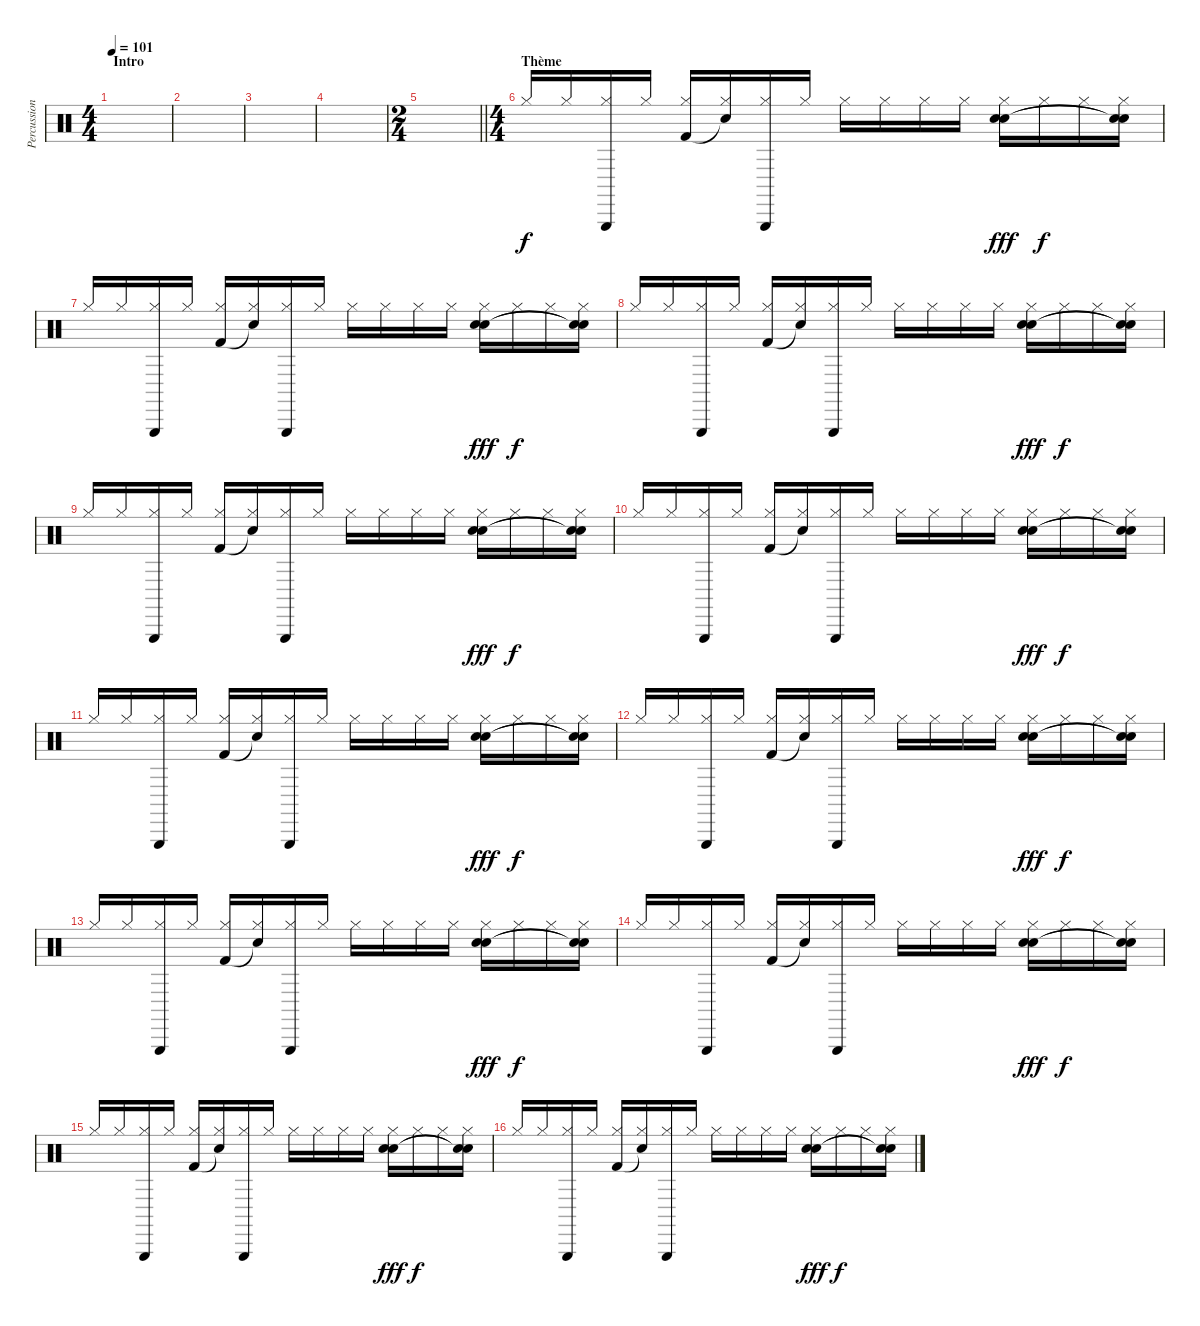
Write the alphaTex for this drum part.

\track ("Percussions" "Percussion") {instrument percussion}
\staff {score}
\articulation defaults
\ts (4 4)
\section ("" "Intro")
\tempo 101
\clef neutral
\ks c
|
|
|
|
\ts (2 4)
\barLineRight lightlight
|
\ts (4 4)
\section ("" "Thème")
"Hi-Hat (closed)".16 "Hi-Hat (closed)".16 ("Hi-Hat (closed)" "Triangle (hit)").16 "Hi-Hat (closed)".16 ("Hi-Hat (closed)" "Kick (hit) 2").16 ("Hi-Hat (closed)" "Snare (hit)"{t}).16 ("Hi-Hat (closed)" "Triangle (hit)").16 "Hi-Hat (closed)".16 "Hi-Hat (closed)".16 "Hi-Hat (closed)".16 "Hi-Hat (closed)".16 "Hi-Hat (closed)".16 ("Hi-Hat (closed)" "Hand Clap (hit)" "Snare (hit) 2").16{dy fff} "Hi-Hat (closed)".16{dy f} "Hi-Hat (closed)".16 ("Hi-Hat (closed)" "Snare (hit)"{t} "Snare (hit)"{t}).16 |
"Hi-Hat (closed)".16 "Hi-Hat (closed)".16 ("Hi-Hat (closed)" "Triangle (hit)").16 "Hi-Hat (closed)".16 ("Hi-Hat (closed)" "Kick (hit) 2").16 ("Hi-Hat (closed)" "Snare (hit)"{t}).16 ("Hi-Hat (closed)" "Triangle (hit)").16 "Hi-Hat (closed)".16 "Hi-Hat (closed)".16 "Hi-Hat (closed)".16 "Hi-Hat (closed)".16 "Hi-Hat (closed)".16 ("Hi-Hat (closed)" "Hand Clap (hit)" "Snare (hit) 2").16{dy fff} "Hi-Hat (closed)".16{dy f} "Hi-Hat (closed)".16 ("Hi-Hat (closed)" "Snare (hit)"{t} "Snare (hit)"{t}).16 |
"Hi-Hat (closed)".16 "Hi-Hat (closed)".16 ("Hi-Hat (closed)" "Triangle (hit)").16 "Hi-Hat (closed)".16 ("Hi-Hat (closed)" "Kick (hit) 2").16 ("Hi-Hat (closed)" "Snare (hit)"{t}).16 ("Hi-Hat (closed)" "Triangle (hit)").16 "Hi-Hat (closed)".16 "Hi-Hat (closed)".16 "Hi-Hat (closed)".16 "Hi-Hat (closed)".16 "Hi-Hat (closed)".16 ("Hi-Hat (closed)" "Hand Clap (hit)" "Snare (hit) 2").16{dy fff} "Hi-Hat (closed)".16{dy f} "Hi-Hat (closed)".16 ("Hi-Hat (closed)" "Snare (hit)"{t} "Snare (hit)"{t}).16 |
"Hi-Hat (closed)".16 "Hi-Hat (closed)".16 ("Hi-Hat (closed)" "Triangle (hit)").16 "Hi-Hat (closed)".16 ("Hi-Hat (closed)" "Kick (hit) 2").16 ("Hi-Hat (closed)" "Snare (hit)"{t}).16 ("Hi-Hat (closed)" "Triangle (hit)").16 "Hi-Hat (closed)".16 "Hi-Hat (closed)".16 "Hi-Hat (closed)".16 "Hi-Hat (closed)".16 "Hi-Hat (closed)".16 ("Hi-Hat (closed)" "Hand Clap (hit)" "Snare (hit) 2").16{dy fff} "Hi-Hat (closed)".16{dy f} "Hi-Hat (closed)".16 ("Hi-Hat (closed)" "Snare (hit)"{t} "Snare (hit)"{t}).16 |
"Hi-Hat (closed)".16 "Hi-Hat (closed)".16 ("Hi-Hat (closed)" "Triangle (hit)").16 "Hi-Hat (closed)".16 ("Hi-Hat (closed)" "Kick (hit) 2").16 ("Hi-Hat (closed)" "Snare (hit)"{t}).16 ("Hi-Hat (closed)" "Triangle (hit)").16 "Hi-Hat (closed)".16 "Hi-Hat (closed)".16 "Hi-Hat (closed)".16 "Hi-Hat (closed)".16 "Hi-Hat (closed)".16 ("Hi-Hat (closed)" "Hand Clap (hit)" "Snare (hit) 2").16{dy fff} "Hi-Hat (closed)".16{dy f} "Hi-Hat (closed)".16 ("Hi-Hat (closed)" "Snare (hit)"{t} "Snare (hit)"{t}).16 |
"Hi-Hat (closed)".16 "Hi-Hat (closed)".16 ("Hi-Hat (closed)" "Triangle (hit)").16 "Hi-Hat (closed)".16 ("Hi-Hat (closed)" "Kick (hit) 2").16 ("Hi-Hat (closed)" "Snare (hit)"{t}).16 ("Hi-Hat (closed)" "Triangle (hit)").16 "Hi-Hat (closed)".16 "Hi-Hat (closed)".16 "Hi-Hat (closed)".16 "Hi-Hat (closed)".16 "Hi-Hat (closed)".16 ("Hi-Hat (closed)" "Hand Clap (hit)" "Snare (hit) 2").16{dy fff} "Hi-Hat (closed)".16{dy f} "Hi-Hat (closed)".16 ("Hi-Hat (closed)" "Snare (hit)"{t} "Snare (hit)"{t}).16 |
"Hi-Hat (closed)".16 "Hi-Hat (closed)".16 ("Hi-Hat (closed)" "Triangle (hit)").16 "Hi-Hat (closed)".16 ("Hi-Hat (closed)" "Kick (hit) 2").16 ("Hi-Hat (closed)" "Snare (hit)"{t}).16 ("Hi-Hat (closed)" "Triangle (hit)").16 "Hi-Hat (closed)".16 "Hi-Hat (closed)".16 "Hi-Hat (closed)".16 "Hi-Hat (closed)".16 "Hi-Hat (closed)".16 ("Hi-Hat (closed)" "Hand Clap (hit)" "Snare (hit) 2").16{dy fff} "Hi-Hat (closed)".16{dy f} "Hi-Hat (closed)".16 ("Hi-Hat (closed)" "Snare (hit)"{t} "Snare (hit)"{t}).16 |
"Hi-Hat (closed)".16 "Hi-Hat (closed)".16 ("Hi-Hat (closed)" "Triangle (hit)").16 "Hi-Hat (closed)".16 ("Hi-Hat (closed)" "Kick (hit) 2").16 ("Hi-Hat (closed)" "Snare (hit)"{t}).16 ("Hi-Hat (closed)" "Triangle (hit)").16 "Hi-Hat (closed)".16 "Hi-Hat (closed)".16 "Hi-Hat (closed)".16 "Hi-Hat (closed)".16 "Hi-Hat (closed)".16 ("Hi-Hat (closed)" "Hand Clap (hit)" "Snare (hit) 2").16{dy fff} "Hi-Hat (closed)".16{dy f} "Hi-Hat (closed)".16 ("Hi-Hat (closed)" "Snare (hit)"{t} "Snare (hit)"{t}).16 |
"Hi-Hat (closed)".16 "Hi-Hat (closed)".16 ("Hi-Hat (closed)" "Triangle (hit)").16 "Hi-Hat (closed)".16 ("Hi-Hat (closed)" "Kick (hit) 2").16 ("Hi-Hat (closed)" "Snare (hit)"{t}).16 ("Hi-Hat (closed)" "Triangle (hit)").16 "Hi-Hat (closed)".16 "Hi-Hat (closed)".16 "Hi-Hat (closed)".16 "Hi-Hat (closed)".16 "Hi-Hat (closed)".16 ("Hi-Hat (closed)" "Hand Clap (hit)" "Snare (hit) 2").16{dy fff} "Hi-Hat (closed)".16{dy f} "Hi-Hat (closed)".16 ("Hi-Hat (closed)" "Snare (hit)"{t} "Snare (hit)"{t}).16 |
"Hi-Hat (closed)".16 "Hi-Hat (closed)".16 ("Hi-Hat (closed)" "Triangle (hit)").16 "Hi-Hat (closed)".16 ("Hi-Hat (closed)" "Kick (hit) 2").16 ("Hi-Hat (closed)" "Snare (hit)"{t}).16 ("Hi-Hat (closed)" "Triangle (hit)").16 "Hi-Hat (closed)".16 "Hi-Hat (closed)".16 "Hi-Hat (closed)".16 "Hi-Hat (closed)".16 "Hi-Hat (closed)".16 ("Hi-Hat (closed)" "Hand Clap (hit)" "Snare (hit) 2").16{dy fff} "Hi-Hat (closed)".16{dy f} "Hi-Hat (closed)".16 ("Hi-Hat (closed)" "Snare (hit)"{t} "Snare (hit)"{t}).16 |
"Hi-Hat (closed)".16 "Hi-Hat (closed)".16 ("Hi-Hat (closed)" "Triangle (hit)").16 "Hi-Hat (closed)".16 ("Hi-Hat (closed)" "Kick (hit) 2").16 ("Hi-Hat (closed)" "Snare (hit)"{t}).16 ("Hi-Hat (closed)" "Triangle (hit)").16 "Hi-Hat (closed)".16 "Hi-Hat (closed)".16 "Hi-Hat (closed)".16 "Hi-Hat (closed)".16 "Hi-Hat (closed)".16 ("Hi-Hat (closed)" "Hand Clap (hit)" "Snare (hit) 2").16{dy fff} "Hi-Hat (closed)".16{dy f} "Hi-Hat (closed)".16 ("Hi-Hat (closed)" "Snare (hit)"{t} "Snare (hit)"{t}).16
